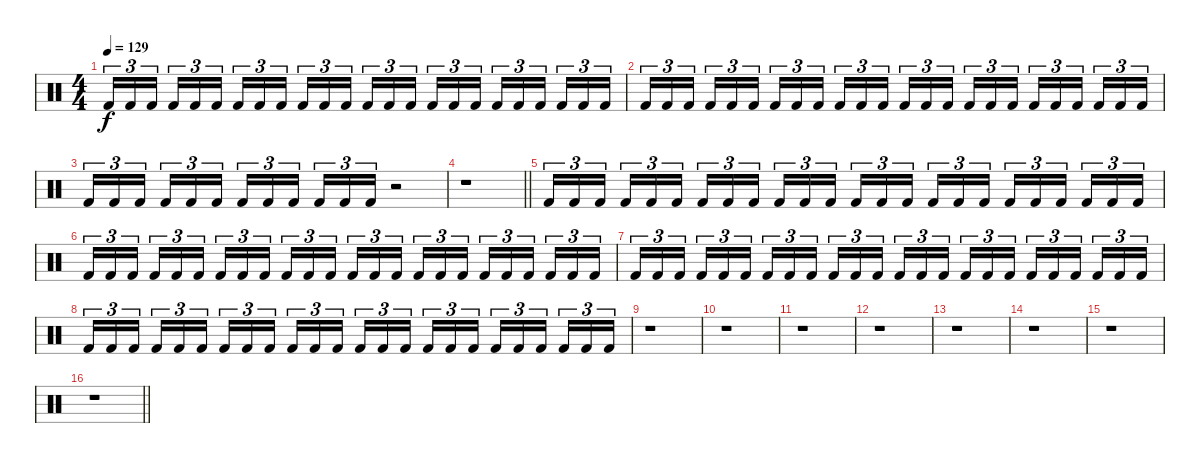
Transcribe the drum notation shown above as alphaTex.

\track "" {instrument percussion}
\staff {score}
\articulation defaults
\ts (4 4)
\tempo 129
\clef neutral
\ks c "Kick (hit) 2".16{tu (3 2) dy f} "Kick (hit) 2".16{tu (3 2)} "Kick (hit) 2".16{tu (3 2) beam splitsecondary} "Kick (hit) 2".16{tu (3 2)} "Kick (hit) 2".16{tu (3 2)} "Kick (hit) 2".16{tu (3 2)} "Kick (hit) 2".16{tu (3 2)} "Kick (hit) 2".16{tu (3 2)} "Kick (hit) 2".16{tu (3 2) beam splitsecondary} "Kick (hit) 2".16{tu (3 2)} "Kick (hit) 2".16{tu (3 2)} "Kick (hit) 2".16{tu (3 2)} "Kick (hit) 2".16{tu (3 2)} "Kick (hit) 2".16{tu (3 2)} "Kick (hit) 2".16{tu (3 2) beam splitsecondary} "Kick (hit) 2".16{tu (3 2)} "Kick (hit) 2".16{tu (3 2)} "Kick (hit) 2".16{tu (3 2)} "Kick (hit) 2".16{tu (3 2)} "Kick (hit) 2".16{tu (3 2)} "Kick (hit) 2".16{tu (3 2) beam splitsecondary} "Kick (hit) 2".16{tu (3 2)} "Kick (hit) 2".16{tu (3 2)} "Kick (hit) 2".16{tu (3 2)}
|
"Kick (hit) 2".16{tu (3 2)} "Kick (hit) 2".16{tu (3 2)} "Kick (hit) 2".16{tu (3 2) beam splitsecondary} "Kick (hit) 2".16{tu (3 2)} "Kick (hit) 2".16{tu (3 2)} "Kick (hit) 2".16{tu (3 2)} "Kick (hit) 2".16{tu (3 2)} "Kick (hit) 2".16{tu (3 2)} "Kick (hit) 2".16{tu (3 2) beam splitsecondary} "Kick (hit) 2".16{tu (3 2)} "Kick (hit) 2".16{tu (3 2)} "Kick (hit) 2".16{tu (3 2)} "Kick (hit) 2".16{tu (3 2)} "Kick (hit) 2".16{tu (3 2)} "Kick (hit) 2".16{tu (3 2) beam splitsecondary} "Kick (hit) 2".16{tu (3 2)} "Kick (hit) 2".16{tu (3 2)} "Kick (hit) 2".16{tu (3 2)} "Kick (hit) 2".16{tu (3 2)} "Kick (hit) 2".16{tu (3 2)} "Kick (hit) 2".16{tu (3 2) beam splitsecondary} "Kick (hit) 2".16{tu (3 2)} "Kick (hit) 2".16{tu (3 2)} "Kick (hit) 2".16{tu (3 2)} |
"Kick (hit) 2".16{tu (3 2)} "Kick (hit) 2".16{tu (3 2)} "Kick (hit) 2".16{tu (3 2) beam splitsecondary} "Kick (hit) 2".16{tu (3 2)} "Kick (hit) 2".16{tu (3 2)} "Kick (hit) 2".16{tu (3 2)} "Kick (hit) 2".16{tu (3 2)} "Kick (hit) 2".16{tu (3 2)} "Kick (hit) 2".16{tu (3 2) beam splitsecondary} "Kick (hit) 2".16{tu (3 2)} "Kick (hit) 2".16{tu (3 2)} "Kick (hit) 2".16{tu (3 2)} r.2 |
\barLineRight lightlight
r.1 |
"Kick (hit) 2".16{tu (3 2)} "Kick (hit) 2".16{tu (3 2)} "Kick (hit) 2".16{tu (3 2) beam splitsecondary} "Kick (hit) 2".16{tu (3 2)} "Kick (hit) 2".16{tu (3 2)} "Kick (hit) 2".16{tu (3 2)} "Kick (hit) 2".16{tu (3 2)} "Kick (hit) 2".16{tu (3 2)} "Kick (hit) 2".16{tu (3 2) beam splitsecondary} "Kick (hit) 2".16{tu (3 2)} "Kick (hit) 2".16{tu (3 2)} "Kick (hit) 2".16{tu (3 2)} "Kick (hit) 2".16{tu (3 2)} "Kick (hit) 2".16{tu (3 2)} "Kick (hit) 2".16{tu (3 2) beam splitsecondary} "Kick (hit) 2".16{tu (3 2)} "Kick (hit) 2".16{tu (3 2)} "Kick (hit) 2".16{tu (3 2)} "Kick (hit) 2".16{tu (3 2)} "Kick (hit) 2".16{tu (3 2)} "Kick (hit) 2".16{tu (3 2) beam splitsecondary} "Kick (hit) 2".16{tu (3 2)} "Kick (hit) 2".16{tu (3 2)} "Kick (hit) 2".16{tu (3 2)} |
"Kick (hit) 2".16{tu (3 2)} "Kick (hit) 2".16{tu (3 2)} "Kick (hit) 2".16{tu (3 2) beam splitsecondary} "Kick (hit) 2".16{tu (3 2)} "Kick (hit) 2".16{tu (3 2)} "Kick (hit) 2".16{tu (3 2)} "Kick (hit) 2".16{tu (3 2)} "Kick (hit) 2".16{tu (3 2)} "Kick (hit) 2".16{tu (3 2) beam splitsecondary} "Kick (hit) 2".16{tu (3 2)} "Kick (hit) 2".16{tu (3 2)} "Kick (hit) 2".16{tu (3 2)} "Kick (hit) 2".16{tu (3 2)} "Kick (hit) 2".16{tu (3 2)} "Kick (hit) 2".16{tu (3 2) beam splitsecondary} "Kick (hit) 2".16{tu (3 2)} "Kick (hit) 2".16{tu (3 2)} "Kick (hit) 2".16{tu (3 2)} "Kick (hit) 2".16{tu (3 2)} "Kick (hit) 2".16{tu (3 2)} "Kick (hit) 2".16{tu (3 2) beam splitsecondary} "Kick (hit) 2".16{tu (3 2)} "Kick (hit) 2".16{tu (3 2)} "Kick (hit) 2".16{tu (3 2)} |
"Kick (hit) 2".16{tu (3 2)} "Kick (hit) 2".16{tu (3 2)} "Kick (hit) 2".16{tu (3 2) beam splitsecondary} "Kick (hit) 2".16{tu (3 2)} "Kick (hit) 2".16{tu (3 2)} "Kick (hit) 2".16{tu (3 2)} "Kick (hit) 2".16{tu (3 2)} "Kick (hit) 2".16{tu (3 2)} "Kick (hit) 2".16{tu (3 2) beam splitsecondary} "Kick (hit) 2".16{tu (3 2)} "Kick (hit) 2".16{tu (3 2)} "Kick (hit) 2".16{tu (3 2)} "Kick (hit) 2".16{tu (3 2)} "Kick (hit) 2".16{tu (3 2)} "Kick (hit) 2".16{tu (3 2) beam splitsecondary} "Kick (hit) 2".16{tu (3 2)} "Kick (hit) 2".16{tu (3 2)} "Kick (hit) 2".16{tu (3 2)} "Kick (hit) 2".16{tu (3 2)} "Kick (hit) 2".16{tu (3 2)} "Kick (hit) 2".16{tu (3 2) beam splitsecondary} "Kick (hit) 2".16{tu (3 2)} "Kick (hit) 2".16{tu (3 2)} "Kick (hit) 2".16{tu (3 2)} |
"Kick (hit) 2".16{tu (3 2)} "Kick (hit) 2".16{tu (3 2)} "Kick (hit) 2".16{tu (3 2) beam splitsecondary} "Kick (hit) 2".16{tu (3 2)} "Kick (hit) 2".16{tu (3 2)} "Kick (hit) 2".16{tu (3 2)} "Kick (hit) 2".16{tu (3 2)} "Kick (hit) 2".16{tu (3 2)} "Kick (hit) 2".16{tu (3 2) beam splitsecondary} "Kick (hit) 2".16{tu (3 2)} "Kick (hit) 2".16{tu (3 2)} "Kick (hit) 2".16{tu (3 2)} "Kick (hit) 2".16{tu (3 2)} "Kick (hit) 2".16{tu (3 2)} "Kick (hit) 2".16{tu (3 2) beam splitsecondary} "Kick (hit) 2".16{tu (3 2)} "Kick (hit) 2".16{tu (3 2)} "Kick (hit) 2".16{tu (3 2)} "Kick (hit) 2".16{tu (3 2)} "Kick (hit) 2".16{tu (3 2)} "Kick (hit) 2".16{tu (3 2) beam splitsecondary} "Kick (hit) 2".16{tu (3 2)} "Kick (hit) 2".16{tu (3 2)} "Kick (hit) 2".16{tu (3 2)} |
r.1 |
r.1 |
r.1 |
r.1 |
r.1 |
r.1 |
r.1 |
\barLineRight lightlight
r.1
